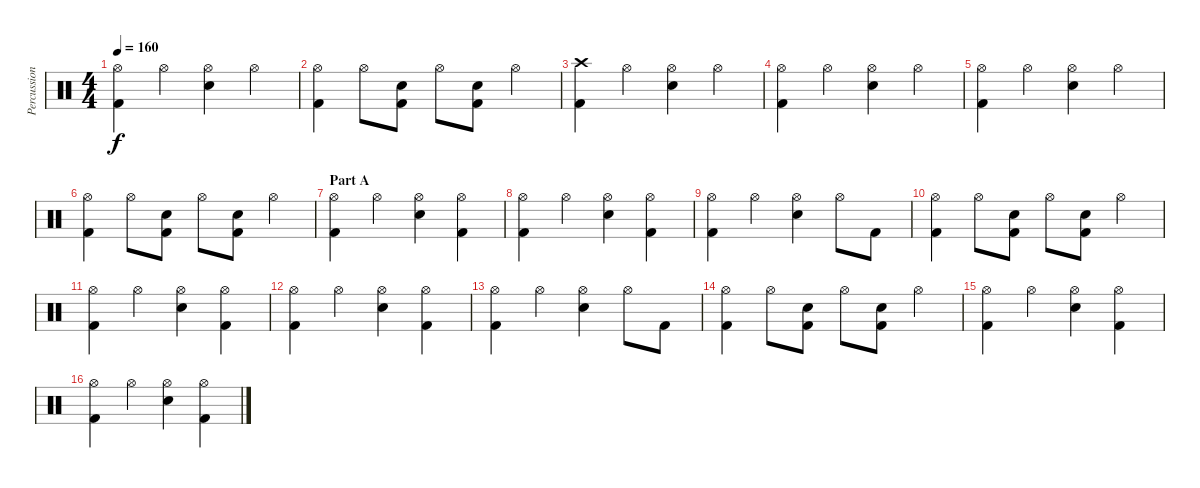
\track ("Percussion" "Percussion") {instrument percussion}
\staff {score}
\articulation defaults
\ts (4 4)
\tempo 160
\clef neutral
\ks c
("Hi-Hat (open)" "Kick (hit) 2").4{dy f} "Hi-Hat (open)".4 ("Hi-Hat (open)" "Electric Snare (hit)").4 "Hi-Hat (open)".4 |
("Hi-Hat (open)" "Kick (hit) 2").4 "Hi-Hat (open)".8 ("Electric Snare (hit)" "Kick (hit) 2").8 "Hi-Hat (open)".8 ("Electric Snare (hit)" "Kick (hit) 2").8 "Hi-Hat (open)".4 |
("Crash high (hit)" "Kick (hit) 2").4 "Hi-Hat (open)".4 ("Hi-Hat (open)" "Electric Snare (hit)").4 "Hi-Hat (open)".4 |
("Hi-Hat (open)" "Kick (hit) 2").4 "Hi-Hat (open)".4 ("Hi-Hat (open)" "Electric Snare (hit)").4 "Hi-Hat (open)".4 |
("Hi-Hat (open)" "Kick (hit) 2").4 "Hi-Hat (open)".4 ("Hi-Hat (open)" "Electric Snare (hit)").4 "Hi-Hat (open)".4 |
("Hi-Hat (open)" "Kick (hit) 2").4 "Hi-Hat (open)".8 ("Electric Snare (hit)" "Kick (hit) 2").8 "Hi-Hat (open)".8 ("Electric Snare (hit)" "Kick (hit) 2").8 "Hi-Hat (open)".4 |
\section ("" "Part A")
("Hi-Hat (open)" "Kick (hit) 2").4 "Hi-Hat (open)".4 ("Hi-Hat (open)" "Electric Snare (hit)").4 ("Hi-Hat (open)" "Kick (hit) 2").4 |
("Hi-Hat (open)" "Kick (hit) 2").4 "Hi-Hat (open)".4 ("Hi-Hat (open)" "Electric Snare (hit)").4 ("Hi-Hat (open)" "Kick (hit) 2").4 |
("Hi-Hat (open)" "Kick (hit) 2").4 "Hi-Hat (open)".4 ("Hi-Hat (open)" "Electric Snare (hit)").4 "Hi-Hat (open)".8 "Kick (hit) 2".8 |
("Hi-Hat (open)" "Kick (hit) 2").4 "Hi-Hat (open)".8 ("Electric Snare (hit)" "Kick (hit) 2").8 "Hi-Hat (open)".8 ("Electric Snare (hit)" "Kick (hit) 2").8 "Hi-Hat (open)".4 |
("Hi-Hat (open)" "Kick (hit) 2").4 "Hi-Hat (open)".4 ("Hi-Hat (open)" "Electric Snare (hit)").4 ("Hi-Hat (open)" "Kick (hit) 2").4 |
("Hi-Hat (open)" "Kick (hit) 2").4 "Hi-Hat (open)".4 ("Hi-Hat (open)" "Electric Snare (hit)").4 ("Hi-Hat (open)" "Kick (hit) 2").4 |
("Hi-Hat (open)" "Kick (hit) 2").4 "Hi-Hat (open)".4 ("Hi-Hat (open)" "Electric Snare (hit)").4 "Hi-Hat (open)".8 "Kick (hit) 2".8 |
("Hi-Hat (open)" "Kick (hit) 2").4 "Hi-Hat (open)".8 ("Electric Snare (hit)" "Kick (hit) 2").8 "Hi-Hat (open)".8 ("Electric Snare (hit)" "Kick (hit) 2").8 "Hi-Hat (open)".4 |
("Hi-Hat (open)" "Kick (hit) 2").4 "Hi-Hat (open)".4 ("Hi-Hat (open)" "Electric Snare (hit)").4 ("Hi-Hat (open)" "Kick (hit) 2").4 |
("Hi-Hat (open)" "Kick (hit) 2").4 "Hi-Hat (open)".4 ("Hi-Hat (open)" "Electric Snare (hit)").4 ("Hi-Hat (open)" "Kick (hit) 2").4
